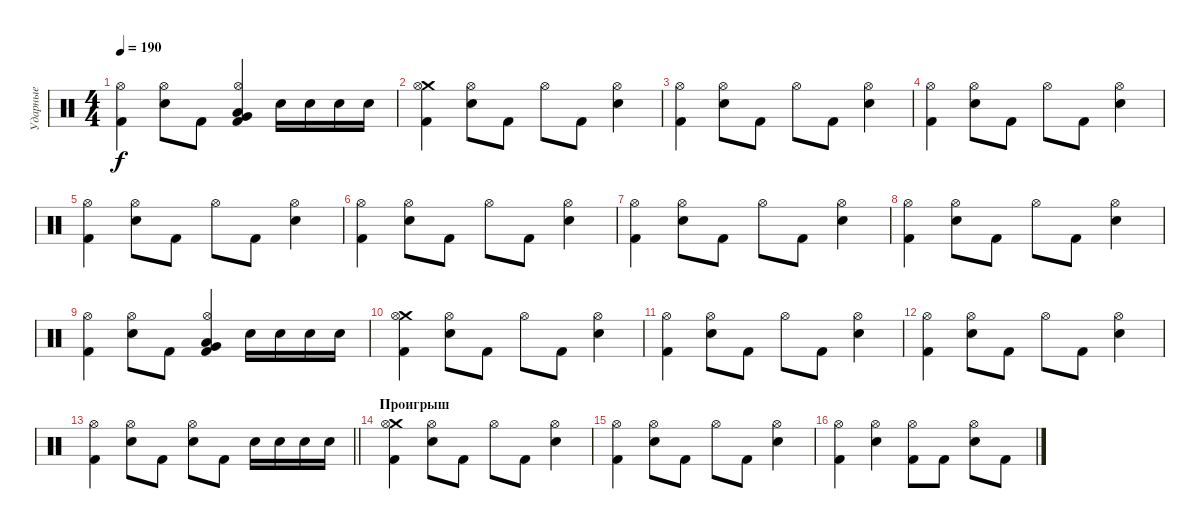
\track ("Ударные" "Ударные") {instrument percussion}
\staff {score}
\articulation defaults
\ts (4 4)
\tempo 190
\clef neutral
\ks c
("Kick (hit) 2" "Hi-Hat (open)").4{dy f} ("Electric Snare (hit)" "Hi-Hat (open)").8 "Kick (hit) 2".8 ("Low Tom (hit)" "Kick (hit) 2" "Hi-Hat (open)" "Very Low Tom (hit)").4 "Electric Snare (hit)".16 "Electric Snare (hit)".16 "Electric Snare (hit)".16 "Electric Snare (hit)".16 |
("Crash medium (hit)" "Kick (hit) 2" "Hi-Hat (open)").4 ("Electric Snare (hit)" "Hi-Hat (open)").8 "Kick (hit) 2".8 "Hi-Hat (open)".8 "Kick (hit) 2".8 ("Electric Snare (hit)" "Hi-Hat (open)").4 |
("Kick (hit) 2" "Hi-Hat (open)").4 ("Electric Snare (hit)" "Hi-Hat (open)").8 "Kick (hit) 2".8 "Hi-Hat (open)".8 "Kick (hit) 2".8 ("Electric Snare (hit)" "Hi-Hat (open)").4 |
("Kick (hit) 2" "Hi-Hat (open)").4 ("Electric Snare (hit)" "Hi-Hat (open)").8 "Kick (hit) 2".8 "Hi-Hat (open)".8 "Kick (hit) 2".8 ("Electric Snare (hit)" "Hi-Hat (open)").4 |
("Kick (hit) 2" "Hi-Hat (open)").4 ("Electric Snare (hit)" "Hi-Hat (open)").8 "Kick (hit) 2".8 "Hi-Hat (open)".8 "Kick (hit) 2".8 ("Electric Snare (hit)" "Hi-Hat (open)").4 |
("Kick (hit) 2" "Hi-Hat (open)").4 ("Electric Snare (hit)" "Hi-Hat (open)").8 "Kick (hit) 2".8 "Hi-Hat (open)".8 "Kick (hit) 2".8 ("Electric Snare (hit)" "Hi-Hat (open)").4 |
("Kick (hit) 2" "Hi-Hat (open)").4 ("Electric Snare (hit)" "Hi-Hat (open)").8 "Kick (hit) 2".8 "Hi-Hat (open)".8 "Kick (hit) 2".8 ("Electric Snare (hit)" "Hi-Hat (open)").4 |
("Kick (hit) 2" "Hi-Hat (open)").4 ("Electric Snare (hit)" "Hi-Hat (open)").8 "Kick (hit) 2".8 "Hi-Hat (open)".8 "Kick (hit) 2".8 ("Electric Snare (hit)" "Hi-Hat (open)").4 |
("Kick (hit) 2" "Hi-Hat (open)").4 ("Electric Snare (hit)" "Hi-Hat (open)").8 "Kick (hit) 2".8 ("Low Tom (hit)" "Kick (hit) 2" "Hi-Hat (open)" "Very Low Tom (hit)").4 "Electric Snare (hit)".16 "Electric Snare (hit)".16 "Electric Snare (hit)".16 "Electric Snare (hit)".16 |
("Crash medium (hit)" "Kick (hit) 2" "Hi-Hat (open)").4 ("Electric Snare (hit)" "Hi-Hat (open)").8 "Kick (hit) 2".8 "Hi-Hat (open)".8 "Kick (hit) 2".8 ("Electric Snare (hit)" "Hi-Hat (open)").4 |
("Kick (hit) 2" "Hi-Hat (open)").4 ("Electric Snare (hit)" "Hi-Hat (open)").8 "Kick (hit) 2".8 "Hi-Hat (open)".8 "Kick (hit) 2".8 ("Electric Snare (hit)" "Hi-Hat (open)").4 |
("Kick (hit) 2" "Hi-Hat (open)").4 ("Electric Snare (hit)" "Hi-Hat (open)").8 "Kick (hit) 2".8 "Hi-Hat (open)".8 "Kick (hit) 2".8 ("Electric Snare (hit)" "Hi-Hat (open)").4 |
\barLineRight lightlight
("Kick (hit) 2" "Hi-Hat (open)").4 ("Electric Snare (hit)" "Hi-Hat (open)").8 "Kick (hit) 2".8 ("Electric Snare (hit)" "Hi-Hat (open)").8 "Kick (hit) 2".8 "Electric Snare (hit)".16 "Electric Snare (hit)".16 "Electric Snare (hit)".16 "Electric Snare (hit)".16 |
\section ("" "Проигрыш")
("Crash medium (hit)" "Kick (hit) 2" "Hi-Hat (open)").4 ("Electric Snare (hit)" "Hi-Hat (open)").8 "Kick (hit) 2".8 "Hi-Hat (open)".8 "Kick (hit) 2".8 ("Electric Snare (hit)" "Hi-Hat (open)").4 |
("Kick (hit) 2" "Hi-Hat (open)").4 ("Electric Snare (hit)" "Hi-Hat (open)").8 "Kick (hit) 2".8 "Hi-Hat (open)".8 "Kick (hit) 2".8 ("Electric Snare (hit)" "Hi-Hat (open)").4 |
("Kick (hit) 2" "Hi-Hat (open)").4 ("Electric Snare (hit)" "Hi-Hat (open)").4 ("Kick (hit) 2" "Hi-Hat (open)").8 "Kick (hit) 2".8 ("Electric Snare (hit)" "Hi-Hat (open)").8 "Kick (hit) 2".8
